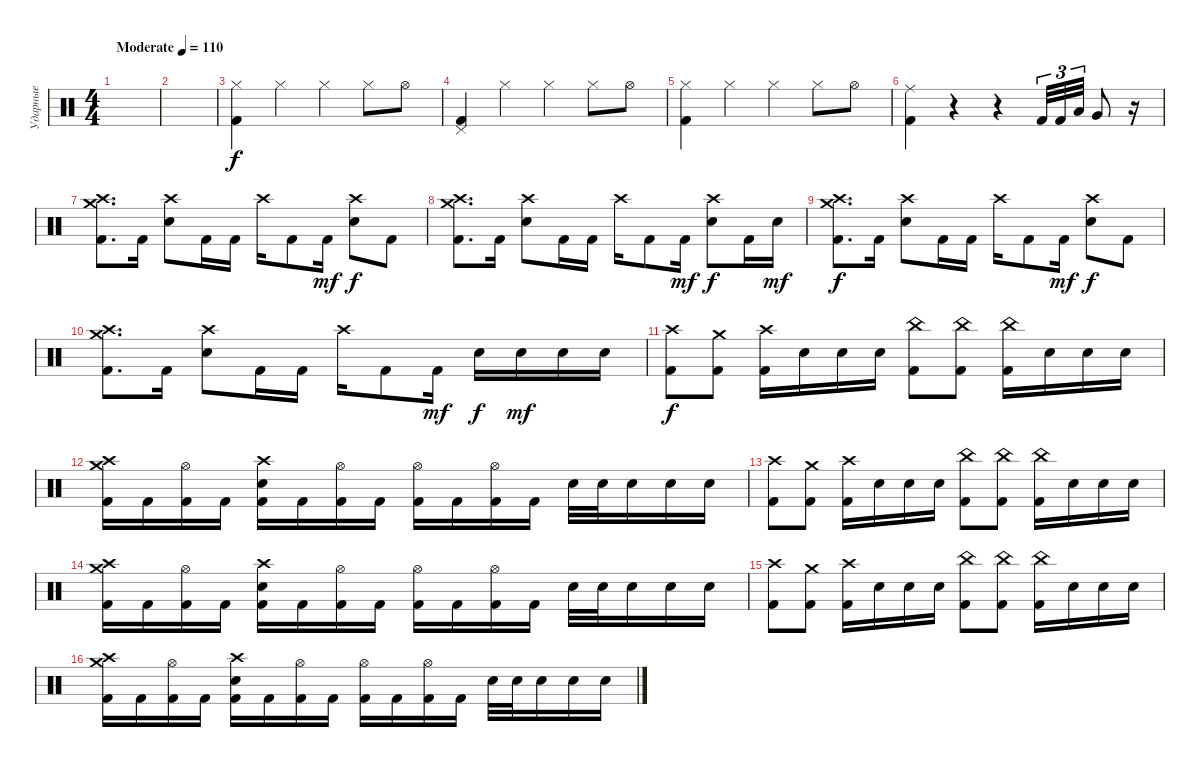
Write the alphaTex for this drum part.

\track ("Ударные" "Ударные") {instrument percussion}
\staff
\articulation defaults
\ts (4 4)
\tempo (110 "Moderate")
\clef neutral
\ks c
|
|
("Hi-Hat (closed)" "Kick (hit) 2").4 "Hi-Hat (closed)".4 "Hi-Hat (closed)".4 "Hi-Hat (closed)".8 "Hi-Hat (open)".8 |
("Pedal Hi-Hat (hit)" "Kick (hit) 2").4 "Hi-Hat (closed)".4 "Hi-Hat (closed)".4 "Hi-Hat (closed)".8 "Hi-Hat (open)".8 |
("Hi-Hat (closed)" "Kick (hit) 2").4 "Hi-Hat (closed)".4 "Hi-Hat (closed)".4 "Hi-Hat (closed)".8 "Hi-Hat (open)".8 |
("Ride (middle)" "Kick (hit) 2").4 r.4 r.4 "Kick (hit) 2".32{tu (3 2)} "Kick (hit) 2".32{tu (3 2)} "Low Tom (hit)".32{tu (3 2)} "Very Low Tom (hit)".8 r.16 |
("Crash medium (hit)" "Crash high (hit)" "Kick (hit) 2").8{d} "Kick (hit) 2".16 ("Crash high (hit)" "Electric Snare (hit)").8 "Kick (hit) 2".16 "Kick (hit) 2".16 "Crash high (hit)".16 "Kick (hit) 2".8 "Kick (hit) 2".16{dy mf} ("Crash high (hit)" "Electric Snare (hit)").8{dy f} "Kick (hit) 2".8 |
("Crash medium (hit)" "Crash high (hit)" "Kick (hit) 2").8{d} "Kick (hit) 2".16 ("Crash high (hit)" "Electric Snare (hit)").8 "Kick (hit) 2".16 "Kick (hit) 2".16 "Crash high (hit)".16 "Kick (hit) 2".8 "Kick (hit) 2".16{dy mf} ("Crash high (hit)" "Electric Snare (hit)").8{dy f} "Kick (hit) 2".16 "Electric Snare (hit)".16{dy mf} |
("Crash medium (hit)" "Crash high (hit)" "Kick (hit) 2").8{d dy f} "Kick (hit) 2".16 ("Crash high (hit)" "Electric Snare (hit)").8 "Kick (hit) 2".16 "Kick (hit) 2".16 "Crash high (hit)".16 "Kick (hit) 2".8 "Kick (hit) 2".16{dy mf} ("Crash high (hit)" "Electric Snare (hit)").8{dy f} "Kick (hit) 2".8 |
("Crash medium (hit)" "Crash high (hit)" "Kick (hit) 2").8{d} "Kick (hit) 2".16 ("Crash high (hit)" "Electric Snare (hit)").8 "Kick (hit) 2".16 "Kick (hit) 2".16 "Crash high (hit)".16 "Kick (hit) 2".8 "Kick (hit) 2".16{dy mf} "Electric Snare (hit)".16{dy f} "Electric Snare (hit)".16{dy mf} "Electric Snare (hit)".16 "Electric Snare (hit)".16 |
("Crash high (hit)" "Kick (hit) 2").8{dy f} ("Crash medium (hit)" "Kick (hit) 2").8 ("Crash high (hit)" "Kick (hit) 2").16 "Electric Snare (hit)".16 "Electric Snare (hit)".16 "Electric Snare (hit)".16 ("China (hit)" "Kick (hit) 2").8 ("China (hit)" "Kick (hit) 2").8 ("China (hit)" "Kick (hit) 2").16 "Electric Snare (hit)".16 "Electric Snare (hit)".16 "Electric Snare (hit)".16 |
("Crash high (hit)" "Crash medium (hit)" "Kick (hit) 2").16 "Kick (hit) 2".16 ("Hi-Hat (open)" "Kick (hit) 2").16 "Kick (hit) 2".16 ("Crash high (hit)" "Electric Snare (hit)" "Kick (hit) 2").16 "Kick (hit) 2".16 ("Hi-Hat (open)" "Kick (hit) 2").16 "Kick (hit) 2".16 ("Hi-Hat (open)" "Kick (hit) 2").16 "Kick (hit) 2".16 ("Hi-Hat (open)" "Kick (hit) 2").16 "Kick (hit) 2".16 "Electric Snare (hit)".32 "Electric Snare (hit)".32 "Electric Snare (hit)".16 "Electric Snare (hit)".16 "Electric Snare (hit)".16 |
("Crash high (hit)" "Kick (hit) 2").8 ("Crash medium (hit)" "Kick (hit) 2").8 ("Crash high (hit)" "Kick (hit) 2").16 "Electric Snare (hit)".16 "Electric Snare (hit)".16 "Electric Snare (hit)".16 ("China (hit)" "Kick (hit) 2").8 ("China (hit)" "Kick (hit) 2").8 ("China (hit)" "Kick (hit) 2").16 "Electric Snare (hit)".16 "Electric Snare (hit)".16 "Electric Snare (hit)".16 |
("Crash high (hit)" "Crash medium (hit)" "Kick (hit) 2").16 "Kick (hit) 2".16 ("Hi-Hat (open)" "Kick (hit) 2").16 "Kick (hit) 2".16 ("Crash high (hit)" "Electric Snare (hit)" "Kick (hit) 2").16 "Kick (hit) 2".16 ("Hi-Hat (open)" "Kick (hit) 2").16 "Kick (hit) 2".16 ("Hi-Hat (open)" "Kick (hit) 2").16 "Kick (hit) 2".16 ("Hi-Hat (open)" "Kick (hit) 2").16 "Kick (hit) 2".16 "Electric Snare (hit)".32 "Electric Snare (hit)".32 "Electric Snare (hit)".16 "Electric Snare (hit)".16 "Electric Snare (hit)".16 |
("Crash high (hit)" "Kick (hit) 2").8 ("Crash medium (hit)" "Kick (hit) 2").8 ("Crash high (hit)" "Kick (hit) 2").16 "Electric Snare (hit)".16 "Electric Snare (hit)".16 "Electric Snare (hit)".16 ("China (hit)" "Kick (hit) 2").8 ("China (hit)" "Kick (hit) 2").8 ("China (hit)" "Kick (hit) 2").16 "Electric Snare (hit)".16 "Electric Snare (hit)".16 "Electric Snare (hit)".16 |
("Crash high (hit)" "Crash medium (hit)" "Kick (hit) 2").16 "Kick (hit) 2".16 ("Hi-Hat (open)" "Kick (hit) 2").16 "Kick (hit) 2".16 ("Crash high (hit)" "Electric Snare (hit)" "Kick (hit) 2").16 "Kick (hit) 2".16 ("Hi-Hat (open)" "Kick (hit) 2").16 "Kick (hit) 2".16 ("Hi-Hat (open)" "Kick (hit) 2").16 "Kick (hit) 2".16 ("Hi-Hat (open)" "Kick (hit) 2").16 "Kick (hit) 2".16 "Electric Snare (hit)".32 "Electric Snare (hit)".32 "Electric Snare (hit)".16 "Electric Snare (hit)".16 "Electric Snare (hit)".16
